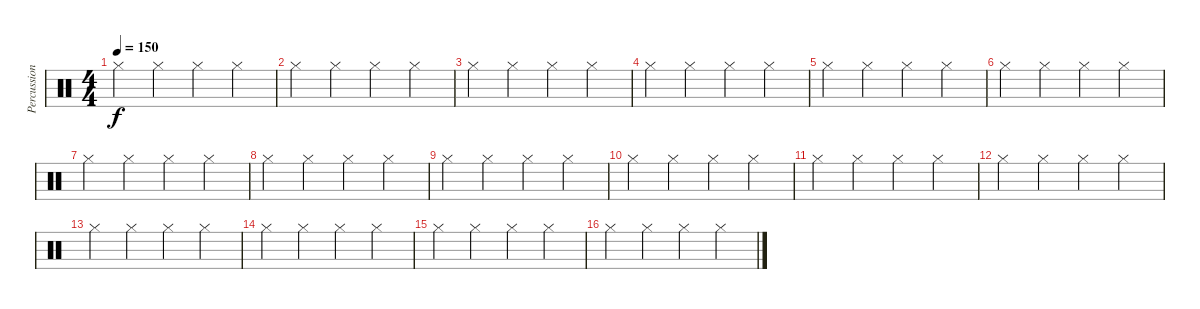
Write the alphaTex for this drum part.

\track ("Percussioni" "Percussion") {instrument percussion}
\staff {score}
\articulation defaults
\ts (4 4)
\tempo 150
\clef neutral
\ks c "Hi-Hat (closed)".4{dy f} "Hi-Hat (closed)".4 "Hi-Hat (closed)".4 "Hi-Hat (closed)".4
|
"Hi-Hat (closed)".4 "Hi-Hat (closed)".4 "Hi-Hat (closed)".4 "Hi-Hat (closed)".4 |
"Hi-Hat (closed)".4 "Hi-Hat (closed)".4 "Hi-Hat (closed)".4 "Hi-Hat (closed)".4 |
"Hi-Hat (closed)".4 "Hi-Hat (closed)".4 "Hi-Hat (closed)".4 "Hi-Hat (closed)".4 |
"Hi-Hat (closed)".4 "Hi-Hat (closed)".4 "Hi-Hat (closed)".4 "Hi-Hat (closed)".4 |
"Hi-Hat (closed)".4 "Hi-Hat (closed)".4 "Hi-Hat (closed)".4 "Hi-Hat (closed)".4 |
"Hi-Hat (closed)".4 "Hi-Hat (closed)".4 "Hi-Hat (closed)".4 "Hi-Hat (closed)".4 |
"Hi-Hat (closed)".4 "Hi-Hat (closed)".4 "Hi-Hat (closed)".4 "Hi-Hat (closed)".4 |
"Hi-Hat (closed)".4 "Hi-Hat (closed)".4 "Hi-Hat (closed)".4 "Hi-Hat (closed)".4 |
"Hi-Hat (closed)".4 "Hi-Hat (closed)".4 "Hi-Hat (closed)".4 "Hi-Hat (closed)".4 |
"Hi-Hat (closed)".4 "Hi-Hat (closed)".4 "Hi-Hat (closed)".4 "Hi-Hat (closed)".4 |
"Hi-Hat (closed)".4 "Hi-Hat (closed)".4 "Hi-Hat (closed)".4 "Hi-Hat (closed)".4 |
"Hi-Hat (closed)".4 "Hi-Hat (closed)".4 "Hi-Hat (closed)".4 "Hi-Hat (closed)".4 |
"Hi-Hat (closed)".4 "Hi-Hat (closed)".4 "Hi-Hat (closed)".4 "Hi-Hat (closed)".4 |
"Hi-Hat (closed)".4 "Hi-Hat (closed)".4 "Hi-Hat (closed)".4 "Hi-Hat (closed)".4 |
"Hi-Hat (closed)".4 "Hi-Hat (closed)".4 "Hi-Hat (closed)".4 "Hi-Hat (closed)".4
